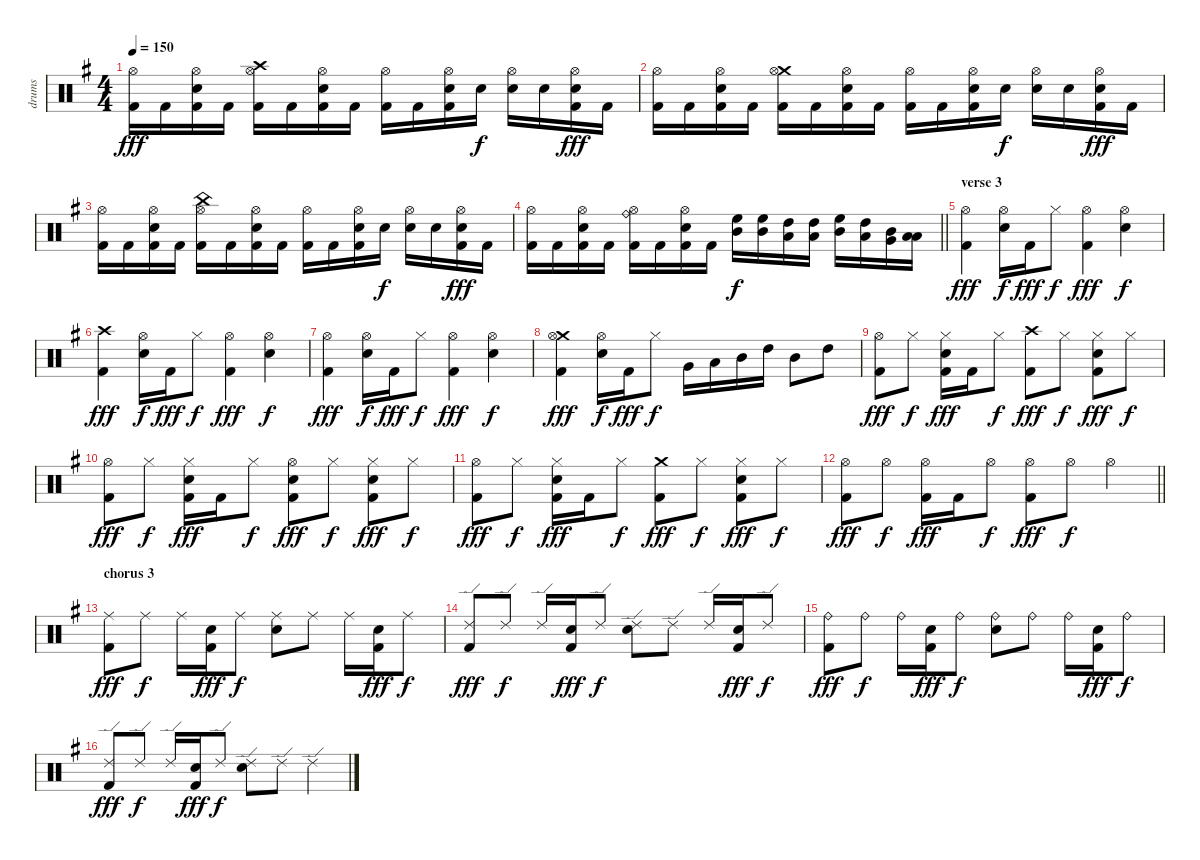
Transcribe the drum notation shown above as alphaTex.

\track ("drums" "drums") {instrument percussion}
\staff {score}
\articulation defaults
\ts (4 4)
\tempo 150
\clef neutral
\ks eminor
("Hi-Hat (open)" "Kick (hit) 2").16{dy fff} "Kick (hit) 2".16 ("Electric Snare (hit)" "Hi-Hat (open)" "Kick (hit) 2").16 "Kick (hit) 2".16 ("Crash high (hit)" "Hi-Hat (open)" "Kick (hit) 2").16 "Kick (hit) 2".16 ("Electric Snare (hit)" "Hi-Hat (open)" "Kick (hit) 2").16 "Kick (hit) 2".16 ("Hi-Hat (open)" "Kick (hit) 2").16 "Kick (hit) 2".16 ("Electric Snare (hit)" "Hi-Hat (open)" "Kick (hit) 2").16 "Electric Snare (hit)".16{dy f} ("Electric Snare (hit)" "Hi-Hat (open)").16 "Electric Snare (hit)".16 ("Electric Snare (hit)" "Hi-Hat (open)" "Kick (hit) 2").16{dy fff} "Kick (hit) 2".16 |
("Hi-Hat (open)" "Kick (hit) 2").16 "Kick (hit) 2".16 ("Electric Snare (hit)" "Hi-Hat (open)" "Kick (hit) 2").16 "Kick (hit) 2".16 ("Crash medium (hit)" "Hi-Hat (open)" "Kick (hit) 2").16 "Kick (hit) 2".16 ("Electric Snare (hit)" "Hi-Hat (open)" "Kick (hit) 2").16 "Kick (hit) 2".16 ("Hi-Hat (open)" "Kick (hit) 2").16 "Kick (hit) 2".16 ("Electric Snare (hit)" "Hi-Hat (open)" "Kick (hit) 2").16 "Electric Snare (hit)".16{dy f} ("Electric Snare (hit)" "Hi-Hat (open)").16 "Electric Snare (hit)".16 ("Electric Snare (hit)" "Hi-Hat (open)" "Kick (hit) 2").16{dy fff} "Kick (hit) 2".16 |
("Hi-Hat (open)" "Kick (hit) 2").16 "Kick (hit) 2".16 ("Electric Snare (hit)" "Hi-Hat (open)" "Kick (hit) 2").16 "Kick (hit) 2".16 ("China (hit)" "Hi-Hat (open)" "Kick (hit) 2").16 "Kick (hit) 2".16 ("Electric Snare (hit)" "Hi-Hat (open)" "Kick (hit) 2").16 "Kick (hit) 2".16 ("Hi-Hat (open)" "Kick (hit) 2").16 "Kick (hit) 2".16 ("Electric Snare (hit)" "Hi-Hat (open)" "Kick (hit) 2").16 "Electric Snare (hit)".16{dy f} ("Electric Snare (hit)" "Hi-Hat (open)").16 "Electric Snare (hit)".16 ("Electric Snare (hit)" "Hi-Hat (open)" "Kick (hit) 2").16{dy fff} "Kick (hit) 2".16 |
\barLineRight lightlight
("Hi-Hat (open)" "Kick (hit) 2").16 "Kick (hit) 2".16 ("Electric Snare (hit)" "Hi-Hat (open)" "Kick (hit) 2").16 "Kick (hit) 2".16 ("Ride (bell)" "Hi-Hat (open)" "Kick (hit) 2").16 "Kick (hit) 2".16 ("Electric Snare (hit)" "Hi-Hat (open)" "Kick (hit) 2").16 "Kick (hit) 2".16 ("High Floor Tom (hit)" "Mid Tom (hit)").16{dy f} ("High Floor Tom (hit)" "Mid Tom (hit)").16 ("High Tom (hit)" "Low Tom (hit)").16 ("High Tom (hit)" "Low Tom (hit)").16 ("High Floor Tom (hit)" "Mid Tom (hit)").16 ("High Tom (hit)" "Low Tom (hit)").16 ("Mid Tom (hit)" "Very Low Tom (hit)").16 ("Low Tom (hit)" "Low Floor Tom (hit)").16 |
\section ("" "verse 3")
("Hi-Hat (open)" "Kick (hit) 2").4{dy fff} ("Electric Snare (hit)" "Hi-Hat (open)").16{dy f} "Kick (hit) 2".16{dy fff} "Hi-Hat (closed)".8{dy f} ("Hi-Hat (open)" "Kick (hit) 2").4{dy fff} ("Electric Snare (hit)" "Hi-Hat (open)").4{dy f} |
("Crash high (hit)" "Kick (hit) 2").4{dy fff} ("Electric Snare (hit)" "Hi-Hat (open)").16{dy f} "Kick (hit) 2".16{dy fff} "Hi-Hat (closed)".8{dy f} ("Hi-Hat (open)" "Kick (hit) 2").4{dy fff} ("Electric Snare (hit)" "Hi-Hat (open)").4{dy f} |
("Hi-Hat (open)" "Kick (hit) 2").4{dy fff} ("Electric Snare (hit)" "Hi-Hat (open)").16{dy f} "Kick (hit) 2".16{dy fff} "Hi-Hat (closed)".8{dy f} ("Hi-Hat (open)" "Kick (hit) 2").4{dy fff} ("Electric Snare (hit)" "Hi-Hat (open)").4{dy f} |
("Crash medium (hit)" "Hi-Hat (open)" "Kick (hit) 2").4{dy fff} ("Electric Snare (hit)" "Hi-Hat (open)").16{dy f} "Kick (hit) 2".16{dy fff} "Hi-Hat (closed)".8{dy f} "Very Low Tom (hit)".16 "Low Tom (hit)".16 "Mid Tom (hit)".16 "High Tom (hit)".16 "Mid Tom (hit)".8 "High Tom (hit)".8 |
("Hi-Hat (open)" "Kick (hit) 2").8{dy fff} "Hi-Hat (closed)".8{dy f} ("Electric Snare (hit)" "Hi-Hat (closed)" "Kick (hit) 2").16{dy fff} "Kick (hit) 2".16 "Hi-Hat (closed)".8{dy f} ("Crash high (hit)" "Kick (hit) 2").8{dy fff} "Hi-Hat (closed)".8{dy f} ("Electric Snare (hit)" "Hi-Hat (closed)" "Kick (hit) 2").8{dy fff} "Hi-Hat (closed)".8{dy f} |
("Hi-Hat (open)" "Kick (hit) 2").8{dy fff} "Hi-Hat (closed)".8{dy f} ("Electric Snare (hit)" "Hi-Hat (closed)" "Kick (hit) 2").16{dy fff} "Kick (hit) 2".16 "Hi-Hat (closed)".8{dy f} ("Electric Snare (hit)" "Hi-Hat (open)" "Kick (hit) 2").8{dy fff} "Hi-Hat (closed)".8{dy f} ("Electric Snare (hit)" "Hi-Hat (closed)" "Kick (hit) 2").8{dy fff} "Hi-Hat (closed)".8{dy f} |
("Hi-Hat (open)" "Kick (hit) 2").8{dy fff} "Hi-Hat (closed)".8{dy f} ("Electric Snare (hit)" "Hi-Hat (closed)" "Kick (hit) 2").16{dy fff} "Kick (hit) 2".16 "Hi-Hat (closed)".8{dy f} ("Crash medium (hit)" "Kick (hit) 2").8{dy fff} "Hi-Hat (closed)".8{dy f} ("Electric Snare (hit)" "Hi-Hat (closed)" "Kick (hit) 2").8{dy fff} "Hi-Hat (closed)".8{dy f} |
\barLineRight lightlight
("Hi-Hat (open)" "Kick (hit) 2").8{dy fff} "Hi-Hat (open)".8{dy f} ("Hi-Hat (open)" "Kick (hit) 2").16{dy fff} "Kick (hit) 2".16 "Hi-Hat (open)".8{dy f} ("Hi-Hat (open)" "Kick (hit) 2").8{dy fff} "Hi-Hat (open)".8{dy f} "Hi-Hat (open)".4 |
\section ("" "chorus 3")
("Ride (middle)" "Kick (hit) 2").8{dy fff} "Ride (middle)".8{dy f} "Ride (middle)".16 ("Electric Snare (hit)" "Kick (hit) 2").16{dy fff} "Ride (middle)".8{dy f} ("Ride (middle)" "Electric Snare (hit)").8 "Ride (middle)".8 "Ride (middle)".16 ("Electric Snare (hit)" "Kick (hit) 2").16{dy fff} "Ride (middle)".8{dy f} |
("Ride (edge) 2" "Kick (hit) 2").8{dy fff} "Ride (edge) 2".8{dy f} "Ride (edge) 2".16 ("Electric Snare (hit)" "Kick (hit) 2").16{dy fff} "Ride (edge) 2".8{dy f} ("Ride (edge) 2" "Electric Snare (hit)").8 "Ride (edge) 2".8 "Ride (edge) 2".16 ("Electric Snare (hit)" "Kick (hit) 2").16{dy fff} "Ride (edge) 2".8{dy f} |
("Ride (bell)" "Kick (hit) 2").8{dy fff} "Ride (bell)".8{dy f} "Ride (bell)".16 ("Electric Snare (hit)" "Kick (hit) 2").16{dy fff} "Ride (bell)".8{dy f} ("Ride (bell)" "Electric Snare (hit)").8 "Ride (bell)".8 "Ride (bell)".16 ("Electric Snare (hit)" "Kick (hit) 2").16{dy fff} "Ride (bell)".8{dy f} |
("Ride (edge) 2" "Kick (hit) 2").8{dy fff} "Ride (edge) 2".8{dy f} "Ride (edge) 2".16 ("Electric Snare (hit)" "Kick (hit) 2").16{dy fff} "Ride (edge) 2".8{dy f} ("Ride (edge) 2" "Electric Snare (hit)").8 "Ride (edge) 2".8 "Ride (edge) 2".4
